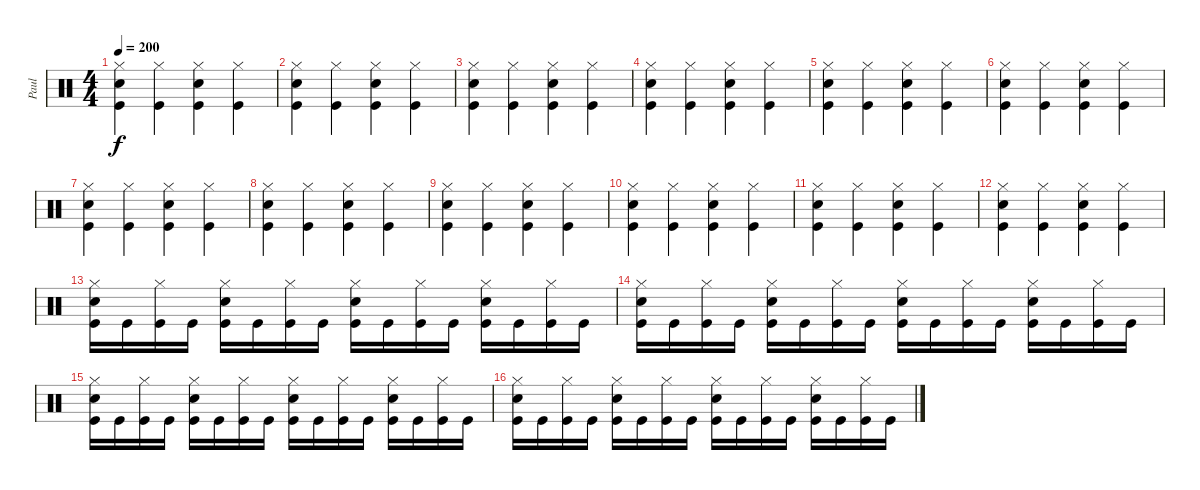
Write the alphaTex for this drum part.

\track ("Paul" "Paul") {instrument percussion}
\staff {score}
\articulation defaults
\ts (4 4)
\tempo 200
\clef neutral
\ks c
("Hi-Hat (closed)" "Snare (hit) 2" "Kick (hit)").4{dy f} ("Hi-Hat (closed)" "Kick (hit)").4 ("Hi-Hat (closed)" "Snare (hit) 2" "Kick (hit)").4 ("Hi-Hat (closed)" "Kick (hit)").4 |
("Hi-Hat (closed)" "Snare (hit) 2" "Kick (hit)").4 ("Hi-Hat (closed)" "Kick (hit)").4 ("Hi-Hat (closed)" "Snare (hit) 2" "Kick (hit)").4 ("Hi-Hat (closed)" "Kick (hit)").4 |
("Hi-Hat (closed)" "Snare (hit) 2" "Kick (hit)").4 ("Hi-Hat (closed)" "Kick (hit)").4 ("Hi-Hat (closed)" "Snare (hit) 2" "Kick (hit)").4 ("Hi-Hat (closed)" "Kick (hit)").4 |
("Hi-Hat (closed)" "Snare (hit) 2" "Kick (hit)").4 ("Hi-Hat (closed)" "Kick (hit)").4 ("Hi-Hat (closed)" "Snare (hit) 2" "Kick (hit)").4 ("Hi-Hat (closed)" "Kick (hit)").4 |
("Hi-Hat (closed)" "Snare (hit) 2" "Kick (hit)").4 ("Hi-Hat (closed)" "Kick (hit)").4 ("Hi-Hat (closed)" "Snare (hit) 2" "Kick (hit)").4 ("Hi-Hat (closed)" "Kick (hit)").4 |
("Hi-Hat (closed)" "Snare (hit) 2" "Kick (hit)").4 ("Hi-Hat (closed)" "Kick (hit)").4 ("Hi-Hat (closed)" "Snare (hit) 2" "Kick (hit)").4 ("Hi-Hat (closed)" "Kick (hit)").4 |
("Hi-Hat (closed)" "Snare (hit) 2" "Kick (hit)").4 ("Hi-Hat (closed)" "Kick (hit)").4 ("Hi-Hat (closed)" "Snare (hit) 2" "Kick (hit)").4 ("Hi-Hat (closed)" "Kick (hit)").4 |
("Hi-Hat (closed)" "Snare (hit) 2" "Kick (hit)").4 ("Hi-Hat (closed)" "Kick (hit)").4 ("Hi-Hat (closed)" "Snare (hit) 2" "Kick (hit)").4 ("Hi-Hat (closed)" "Kick (hit)").4 |
("Hi-Hat (closed)" "Snare (hit) 2" "Kick (hit)").4 ("Hi-Hat (closed)" "Kick (hit)").4 ("Hi-Hat (closed)" "Snare (hit) 2" "Kick (hit)").4 ("Hi-Hat (closed)" "Kick (hit)").4 |
("Hi-Hat (closed)" "Snare (hit) 2" "Kick (hit)").4 ("Hi-Hat (closed)" "Kick (hit)").4 ("Hi-Hat (closed)" "Snare (hit) 2" "Kick (hit)").4 ("Hi-Hat (closed)" "Kick (hit)").4 |
("Hi-Hat (closed)" "Snare (hit) 2" "Kick (hit)").4 ("Hi-Hat (closed)" "Kick (hit)").4 ("Hi-Hat (closed)" "Snare (hit) 2" "Kick (hit)").4 ("Hi-Hat (closed)" "Kick (hit)").4 |
("Hi-Hat (closed)" "Snare (hit) 2" "Kick (hit)").4 ("Hi-Hat (closed)" "Kick (hit)").4 ("Hi-Hat (closed)" "Snare (hit) 2" "Kick (hit)").4 ("Hi-Hat (closed)" "Kick (hit)").4 |
("Kick (hit)" "Snare (hit) 2" "Hi-Hat (closed)").16 "Kick (hit)".16 ("Kick (hit)" "Hi-Hat (closed)").16 "Kick (hit)".16 ("Kick (hit)" "Snare (hit) 2" "Hi-Hat (closed)").16 "Kick (hit)".16 ("Kick (hit)" "Hi-Hat (closed)").16 "Kick (hit)".16 ("Kick (hit)" "Snare (hit) 2" "Hi-Hat (closed)").16 "Kick (hit)".16 ("Kick (hit)" "Hi-Hat (closed)").16 "Kick (hit)".16 ("Kick (hit)" "Snare (hit) 2" "Hi-Hat (closed)").16 "Kick (hit)".16 ("Kick (hit)" "Hi-Hat (closed)").16 "Kick (hit)".16 |
("Kick (hit)" "Snare (hit) 2" "Hi-Hat (closed)").16 "Kick (hit)".16 ("Kick (hit)" "Hi-Hat (closed)").16 "Kick (hit)".16 ("Kick (hit)" "Snare (hit) 2" "Hi-Hat (closed)").16 "Kick (hit)".16 ("Kick (hit)" "Hi-Hat (closed)").16 "Kick (hit)".16 ("Kick (hit)" "Snare (hit) 2" "Hi-Hat (closed)").16 "Kick (hit)".16 ("Kick (hit)" "Hi-Hat (closed)").16 "Kick (hit)".16 ("Kick (hit)" "Snare (hit) 2" "Hi-Hat (closed)").16 "Kick (hit)".16 ("Kick (hit)" "Hi-Hat (closed)").16 "Kick (hit)".16 |
("Kick (hit)" "Snare (hit) 2" "Hi-Hat (closed)").16 "Kick (hit)".16 ("Kick (hit)" "Hi-Hat (closed)").16 "Kick (hit)".16 ("Kick (hit)" "Snare (hit) 2" "Hi-Hat (closed)").16 "Kick (hit)".16 ("Kick (hit)" "Hi-Hat (closed)").16 "Kick (hit)".16 ("Kick (hit)" "Snare (hit) 2" "Hi-Hat (closed)").16 "Kick (hit)".16 ("Kick (hit)" "Hi-Hat (closed)").16 "Kick (hit)".16 ("Kick (hit)" "Snare (hit) 2" "Hi-Hat (closed)").16 "Kick (hit)".16 ("Kick (hit)" "Hi-Hat (closed)").16 "Kick (hit)".16 |
("Kick (hit)" "Snare (hit) 2" "Hi-Hat (closed)").16 "Kick (hit)".16 ("Kick (hit)" "Hi-Hat (closed)").16 "Kick (hit)".16 ("Kick (hit)" "Snare (hit) 2" "Hi-Hat (closed)").16 "Kick (hit)".16 ("Kick (hit)" "Hi-Hat (closed)").16 "Kick (hit)".16 ("Kick (hit)" "Snare (hit) 2" "Hi-Hat (closed)").16 "Kick (hit)".16 ("Kick (hit)" "Hi-Hat (closed)").16 "Kick (hit)".16 ("Kick (hit)" "Snare (hit) 2" "Hi-Hat (closed)").16 "Kick (hit)".16 ("Kick (hit)" "Hi-Hat (closed)").16 "Kick (hit)".16
